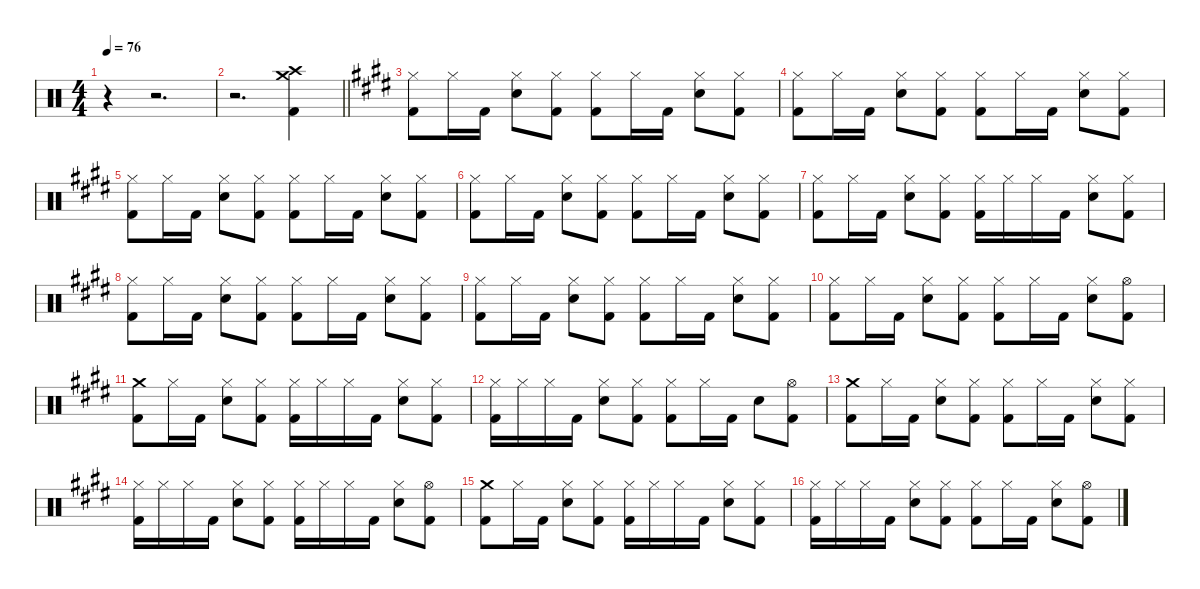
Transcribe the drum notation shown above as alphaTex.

\defaultSystemsLayout 4
\hideDynamics
\bracketExtendMode nobrackets
\singleTrackTrackNamePolicy hidden
\multiTrackTrackNamePolicy hidden
\firstSystemTrackNameMode fullname
\otherSystemsTrackNameOrientation horizontal
\track ("Drums" "drm.") {instrument percussion}
\staff {score}
\articulation defaults
\ts (4 4)
\tempo 76
\clef neutral
\ks c
r.4{dy f beam Down} r.2{d beam Down} |
\barLineRight lightlight
r.2{d beam Down} ("Crash medium (hit)" "Crash high (hit)" "Kick (hit) 2").4{beam Down} |
\ks e
("Hi-Hat (closed)"{acc forcenatural} "Kick (hit) 2"{acc forcenatural}).8{beam Down} "Hi-Hat (closed)"{acc forcenatural}.16{beam Down} "Kick (hit) 2"{acc forcenatural}.16{beam Down} ("Hi-Hat (closed)"{acc forcenatural} "Snare (hit) 2"{acc forcenatural}).8{dy mf beam Down} ("Hi-Hat (closed)"{acc forcenatural} "Kick (hit) 2"{acc forcenatural}).8{dy f beam Down} ("Hi-Hat (closed)"{acc forcenatural} "Kick (hit) 2"{acc forcenatural}).8{beam Down} "Hi-Hat (closed)"{acc forcenatural}.16{beam Down} "Kick (hit) 2"{acc forcenatural}.16{beam Down} ("Hi-Hat (closed)"{acc forcenatural} "Snare (hit) 2"{acc forcenatural}).8{dy mf beam Down} ("Hi-Hat (closed)"{acc forcenatural} "Kick (hit) 2"{acc forcenatural}).8{dy f beam Down} |
("Hi-Hat (closed)"{acc forcenatural} "Kick (hit) 2"{acc forcenatural}).8{beam Down} "Hi-Hat (closed)"{acc forcenatural}.16{beam Down} "Kick (hit) 2"{acc forcenatural}.16{beam Down} ("Hi-Hat (closed)"{acc forcenatural} "Snare (hit) 2"{acc forcenatural}).8{dy mf beam Down} ("Hi-Hat (closed)"{acc forcenatural} "Kick (hit) 2"{acc forcenatural}).8{dy f beam Down} ("Hi-Hat (closed)"{acc forcenatural} "Kick (hit) 2"{acc forcenatural}).8{beam Down} "Hi-Hat (closed)"{acc forcenatural}.16{beam Down} "Kick (hit) 2"{acc forcenatural}.16{beam Down} ("Hi-Hat (closed)"{acc forcenatural} "Snare (hit) 2"{acc forcenatural}).8{dy mf beam Down} ("Hi-Hat (closed)"{acc forcenatural} "Kick (hit) 2"{acc forcenatural}).8{dy f beam Down} |
("Hi-Hat (closed)"{acc forcenatural} "Kick (hit) 2"{acc forcenatural}).8{beam Down} "Hi-Hat (closed)"{acc forcenatural}.16{beam Down} "Kick (hit) 2"{acc forcenatural}.16{beam Down} ("Hi-Hat (closed)"{acc forcenatural} "Snare (hit) 2"{acc forcenatural}).8{dy mf beam Down} ("Hi-Hat (closed)"{acc forcenatural} "Kick (hit) 2"{acc forcenatural}).8{dy f beam Down} ("Hi-Hat (closed)"{acc forcenatural} "Kick (hit) 2"{acc forcenatural}).8{beam Down} "Hi-Hat (closed)"{acc forcenatural}.16{beam Down} "Kick (hit) 2"{acc forcenatural}.16{beam Down} ("Hi-Hat (closed)"{acc forcenatural} "Snare (hit) 2"{acc forcenatural}).8{dy mf beam Down} ("Hi-Hat (closed)"{acc forcenatural} "Kick (hit) 2"{acc forcenatural}).8{dy f beam Down} |
("Hi-Hat (closed)"{acc forcenatural} "Kick (hit) 2"{acc forcenatural}).8{beam Down} "Hi-Hat (closed)"{acc forcenatural}.16{beam Down} "Kick (hit) 2"{acc forcenatural}.16{beam Down} ("Hi-Hat (closed)"{acc forcenatural} "Snare (hit) 2"{acc forcenatural}).8{dy mf beam Down} ("Hi-Hat (closed)"{acc forcenatural} "Kick (hit) 2"{acc forcenatural}).8{dy f beam Down} ("Hi-Hat (closed)"{acc forcenatural} "Kick (hit) 2"{acc forcenatural}).8{beam Down} "Hi-Hat (closed)"{acc forcenatural}.16{beam Down} "Kick (hit) 2"{acc forcenatural}.16{beam Down} ("Hi-Hat (closed)"{acc forcenatural} "Snare (hit) 2"{acc forcenatural}).8{dy mf beam Down} ("Hi-Hat (closed)"{acc forcenatural} "Kick (hit) 2"{acc forcenatural}).8{dy f beam Down} |
("Hi-Hat (closed)"{acc forcenatural} "Kick (hit) 2"{acc forcenatural}).8{beam Down} "Hi-Hat (closed)"{acc forcenatural}.16{beam Down} "Kick (hit) 2"{acc forcenatural}.16{beam Down} ("Hi-Hat (closed)"{acc forcenatural} "Snare (hit) 2"{acc forcenatural}).8{dy mf beam Down} ("Hi-Hat (closed)"{acc forcenatural} "Kick (hit) 2"{acc forcenatural}).8{dy f beam Down} ("Hi-Hat (closed)"{acc forcenatural} "Kick (hit) 2"{acc forcenatural}).16{beam Down} "Hi-Hat (closed)"{acc forcenatural}.16{dy mf beam Down} "Hi-Hat (closed)"{acc forcenatural}.16{dy f beam Down} "Kick (hit) 2"{acc forcenatural}.16{beam Down} ("Hi-Hat (closed)"{acc forcenatural} "Snare (hit) 2"{acc forcenatural}).8{dy mf beam Down} ("Hi-Hat (closed)"{acc forcenatural} "Kick (hit) 2"{acc forcenatural}).8{dy f beam Down} |
("Hi-Hat (closed)"{acc forcenatural} "Kick (hit) 2"{acc forcenatural}).8{beam Down} "Hi-Hat (closed)"{acc forcenatural}.16{beam Down} "Kick (hit) 2"{acc forcenatural}.16{beam Down} ("Hi-Hat (closed)"{acc forcenatural} "Snare (hit) 2"{acc forcenatural}).8{dy mf beam Down} ("Hi-Hat (closed)"{acc forcenatural} "Kick (hit) 2"{acc forcenatural}).8{dy f beam Down} ("Hi-Hat (closed)"{acc forcenatural} "Kick (hit) 2"{acc forcenatural}).8{beam Down} "Hi-Hat (closed)"{acc forcenatural}.16{beam Down} "Kick (hit) 2"{acc forcenatural}.16{beam Down} ("Hi-Hat (closed)"{acc forcenatural} "Snare (hit) 2"{acc forcenatural}).8{dy mf beam Down} ("Hi-Hat (closed)"{acc forcenatural} "Kick (hit) 2"{acc forcenatural}).8{dy f beam Down} |
("Hi-Hat (closed)"{acc forcenatural} "Kick (hit) 2"{acc forcenatural}).8{beam Down} "Hi-Hat (closed)"{acc forcenatural}.16{beam Down} "Kick (hit) 2"{acc forcenatural}.16{beam Down} ("Hi-Hat (closed)"{acc forcenatural} "Snare (hit) 2"{acc forcenatural}).8{dy mf beam Down} ("Hi-Hat (closed)"{acc forcenatural} "Kick (hit) 2"{acc forcenatural}).8{dy f beam Down} ("Hi-Hat (closed)"{acc forcenatural} "Kick (hit) 2"{acc forcenatural}).8{beam Down} "Hi-Hat (closed)"{acc forcenatural}.16{beam Down} "Kick (hit) 2"{acc forcenatural}.16{beam Down} ("Hi-Hat (closed)"{acc forcenatural} "Snare (hit) 2"{acc forcenatural}).8{dy mf beam Down} ("Hi-Hat (closed)"{acc forcenatural} "Kick (hit) 2"{acc forcenatural}).8{dy f beam Down} |
("Hi-Hat (closed)"{acc forcenatural} "Kick (hit) 2"{acc forcenatural}).8{beam Down} "Hi-Hat (closed)"{acc forcenatural}.16{beam Down} "Kick (hit) 2"{acc forcenatural}.16{beam Down} ("Hi-Hat (closed)"{acc forcenatural} "Snare (hit) 2"{acc forcenatural}).8{dy mf beam Down} ("Hi-Hat (closed)"{acc forcenatural} "Kick (hit) 2"{acc forcenatural}).8{dy f beam Down} ("Hi-Hat (closed)"{acc forcenatural} "Kick (hit) 2"{acc forcenatural}).8{beam Down} "Hi-Hat (closed)"{acc forcenatural}.16{beam Down} "Kick (hit) 2"{acc forcenatural}.16{beam Down} ("Hi-Hat (closed)"{acc forcenatural} "Snare (hit) 2"{acc forcenatural}).8{dy mf beam Down} ("Hi-Hat (open)"{acc forcenatural} "Kick (hit) 2"{acc forcenatural}).8{dy f beam Down} |
("Crash medium (hit)"{acc forcenatural} "Kick (hit) 2"{acc forcenatural}).8{beam Down} "Hi-Hat (closed)"{acc forcenatural}.16{beam Down} "Kick (hit) 2"{acc forcenatural}.16{beam Down} ("Hi-Hat (closed)"{acc forcenatural} "Snare (hit) 2"{acc forcenatural}).8{dy mf beam Down} ("Hi-Hat (closed)"{acc forcenatural} "Kick (hit) 2"{acc forcenatural}).8{dy f beam Down} ("Hi-Hat (closed)"{acc forcenatural} "Kick (hit) 2"{acc forcenatural}).16{beam Down} "Hi-Hat (closed)"{acc forcenatural}.16{dy mf beam Down} "Hi-Hat (closed)"{acc forcenatural}.16{dy f beam Down} "Kick (hit) 2"{acc forcenatural}.16{beam Down} ("Hi-Hat (closed)"{acc forcenatural} "Snare (hit) 2"{acc forcenatural}).8{dy mf beam Down} ("Hi-Hat (closed)"{acc forcenatural} "Kick (hit) 2"{acc forcenatural}).8{dy f beam Down} |
("Hi-Hat (closed)"{acc forcenatural} "Kick (hit) 2"{acc forcenatural}).16{beam Down} "Hi-Hat (closed)"{acc forcenatural}.16{dy mf beam Down} "Hi-Hat (closed)"{acc forcenatural}.16{dy f beam Down} "Kick (hit) 2"{acc forcenatural}.16{beam Down} ("Hi-Hat (closed)"{acc forcenatural} "Snare (hit) 2"{acc forcenatural}).8{dy mf beam Down} ("Hi-Hat (closed)"{acc forcenatural} "Kick (hit) 2"{acc forcenatural}).8{dy f beam Down} ("Hi-Hat (closed)"{acc forcenatural} "Kick (hit) 2"{acc forcenatural}).8{beam Down} "Hi-Hat (closed)"{acc forcenatural}.16{beam Down} "Kick (hit) 2"{acc forcenatural}.16{beam Down} "Snare (hit) 2"{acc forcenatural}.8{beam Down} ("Hi-Hat (open)"{acc forcenatural} "Kick (hit) 2"{acc forcenatural}).8{beam Down} |
("Crash medium (hit)"{acc forcenatural} "Kick (hit) 2"{acc forcenatural}).8{beam Down} "Hi-Hat (closed)"{acc forcenatural}.16{beam Down} "Kick (hit) 2"{acc forcenatural}.16{beam Down} ("Hi-Hat (closed)"{acc forcenatural} "Snare (hit) 2"{acc forcenatural}).8{dy mf beam Down} ("Hi-Hat (closed)"{acc forcenatural} "Kick (hit) 2"{acc forcenatural}).8{dy f beam Down} ("Hi-Hat (closed)"{acc forcenatural} "Kick (hit) 2"{acc forcenatural}).8{beam Down} "Hi-Hat (closed)"{acc forcenatural}.16{beam Down} "Kick (hit) 2"{acc forcenatural}.16{beam Down} ("Hi-Hat (closed)"{acc forcenatural} "Snare (hit) 2"{acc forcenatural}).8{dy mf beam Down} ("Hi-Hat (closed)"{acc forcenatural} "Kick (hit) 2"{acc forcenatural}).8{dy f beam Down} |
("Hi-Hat (closed)"{acc forcenatural} "Kick (hit) 2"{acc forcenatural}).16{beam Down} "Hi-Hat (closed)"{acc forcenatural}.16{dy mf beam Down} "Hi-Hat (closed)"{acc forcenatural}.16{dy f beam Down} "Kick (hit) 2"{acc forcenatural}.16{beam Down} ("Hi-Hat (closed)"{acc forcenatural} "Snare (hit) 2"{acc forcenatural}).8{dy mf beam Down} ("Hi-Hat (closed)"{acc forcenatural} "Kick (hit) 2"{acc forcenatural}).8{dy f beam Down} ("Hi-Hat (closed)"{acc forcenatural} "Kick (hit) 2"{acc forcenatural}).16{beam Down} "Hi-Hat (closed)"{acc forcenatural}.16{dy mf beam Down} "Hi-Hat (closed)"{acc forcenatural}.16{dy f beam Down} "Kick (hit) 2"{acc forcenatural}.16{beam Down} ("Hi-Hat (closed)"{acc forcenatural} "Snare (hit) 2"{acc forcenatural}).8{dy mf beam Down} ("Hi-Hat (open)"{acc forcenatural} "Kick (hit) 2"{acc forcenatural}).8{dy f beam Down} |
("Crash medium (hit)"{acc forcenatural} "Kick (hit) 2"{acc forcenatural}).8{beam Down} "Hi-Hat (closed)"{acc forcenatural}.16{beam Down} "Kick (hit) 2"{acc forcenatural}.16{beam Down} ("Hi-Hat (closed)"{acc forcenatural} "Snare (hit) 2"{acc forcenatural}).8{dy mf beam Down} ("Hi-Hat (closed)"{acc forcenatural} "Kick (hit) 2"{acc forcenatural}).8{dy f beam Down} ("Hi-Hat (closed)"{acc forcenatural} "Kick (hit) 2"{acc forcenatural}).16{beam Down} "Hi-Hat (closed)"{acc forcenatural}.16{dy mf beam Down} "Hi-Hat (closed)"{acc forcenatural}.16{dy f beam Down} "Kick (hit) 2"{acc forcenatural}.16{beam Down} ("Hi-Hat (closed)"{acc forcenatural} "Snare (hit) 2"{acc forcenatural}).8{dy mf beam Down} ("Hi-Hat (closed)"{acc forcenatural} "Kick (hit) 2"{acc forcenatural}).8{dy f beam Down} |
("Hi-Hat (closed)"{acc forcenatural} "Kick (hit) 2"{acc forcenatural}).16{beam Down} "Hi-Hat (closed)"{acc forcenatural}.16{dy mf beam Down} "Hi-Hat (closed)"{acc forcenatural}.16{dy f beam Down} "Kick (hit) 2"{acc forcenatural}.16{beam Down} ("Hi-Hat (closed)"{acc forcenatural} "Snare (hit) 2"{acc forcenatural}).8{dy mf beam Down} ("Hi-Hat (closed)"{acc forcenatural} "Kick (hit) 2"{acc forcenatural}).8{dy f beam Down} ("Hi-Hat (closed)"{acc forcenatural} "Kick (hit) 2"{acc forcenatural}).8{beam Down} "Hi-Hat (closed)"{acc forcenatural}.16{beam Down} "Kick (hit) 2"{acc forcenatural}.16{beam Down} ("Hi-Hat (closed)"{acc forcenatural} "Snare (hit) 2"{acc forcenatural}).8{dy mf beam Down} ("Hi-Hat (open)"{acc forcenatural} "Kick (hit) 2"{acc forcenatural}).8{dy f beam Down}
